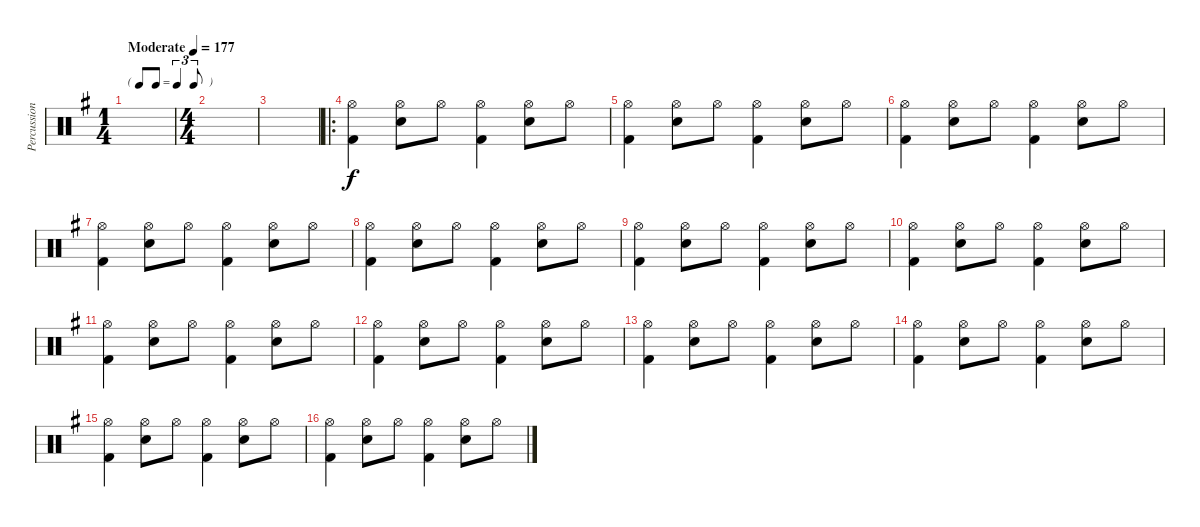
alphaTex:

\track ("Percussion" "Percussion") {instrument percussion}
\staff {score}
\articulation defaults
\ts (1 4)
\tf triplet8th
\tempo (177 "Moderate")
\clef neutral
\ks g
|
\ts (4 4)
|
|
\ro
("Hi-Hat (open)" "Kick (hit) 2").4 ("Hi-Hat (open)" "Snare (hit) 2").8 "Hi-Hat (open)".8 ("Hi-Hat (open)" "Kick (hit) 2").4 ("Hi-Hat (open)" "Snare (hit) 2").8 "Hi-Hat (open)".8 |
("Hi-Hat (open)" "Kick (hit) 2").4 ("Hi-Hat (open)" "Snare (hit) 2").8 "Hi-Hat (open)".8 ("Hi-Hat (open)" "Kick (hit) 2").4 ("Hi-Hat (open)" "Snare (hit) 2").8 "Hi-Hat (open)".8 |
("Hi-Hat (open)" "Kick (hit) 2").4 ("Hi-Hat (open)" "Snare (hit) 2").8 "Hi-Hat (open)".8 ("Hi-Hat (open)" "Kick (hit) 2").4 ("Hi-Hat (open)" "Snare (hit) 2").8 "Hi-Hat (open)".8 |
("Hi-Hat (open)" "Kick (hit) 2").4 ("Hi-Hat (open)" "Snare (hit) 2").8 "Hi-Hat (open)".8 ("Hi-Hat (open)" "Kick (hit) 2").4 ("Hi-Hat (open)" "Snare (hit) 2").8 "Hi-Hat (open)".8 |
("Hi-Hat (open)" "Kick (hit) 2").4 ("Hi-Hat (open)" "Snare (hit) 2").8 "Hi-Hat (open)".8 ("Hi-Hat (open)" "Kick (hit) 2").4 ("Hi-Hat (open)" "Snare (hit) 2").8 "Hi-Hat (open)".8 |
("Hi-Hat (open)" "Kick (hit) 2").4 ("Hi-Hat (open)" "Snare (hit) 2").8 "Hi-Hat (open)".8 ("Hi-Hat (open)" "Kick (hit) 2").4 ("Hi-Hat (open)" "Snare (hit) 2").8 "Hi-Hat (open)".8 |
("Hi-Hat (open)" "Kick (hit) 2").4 ("Hi-Hat (open)" "Snare (hit) 2").8 "Hi-Hat (open)".8 ("Hi-Hat (open)" "Kick (hit) 2").4 ("Hi-Hat (open)" "Snare (hit) 2").8 "Hi-Hat (open)".8 |
("Hi-Hat (open)" "Kick (hit) 2").4 ("Hi-Hat (open)" "Snare (hit) 2").8 "Hi-Hat (open)".8 ("Hi-Hat (open)" "Kick (hit) 2").4 ("Hi-Hat (open)" "Snare (hit) 2").8 "Hi-Hat (open)".8 |
("Hi-Hat (open)" "Kick (hit) 2").4 ("Hi-Hat (open)" "Snare (hit) 2").8 "Hi-Hat (open)".8 ("Hi-Hat (open)" "Kick (hit) 2").4 ("Hi-Hat (open)" "Snare (hit) 2").8 "Hi-Hat (open)".8 |
("Hi-Hat (open)" "Kick (hit) 2").4 ("Hi-Hat (open)" "Snare (hit) 2").8 "Hi-Hat (open)".8 ("Hi-Hat (open)" "Kick (hit) 2").4 ("Hi-Hat (open)" "Snare (hit) 2").8 "Hi-Hat (open)".8 |
("Hi-Hat (open)" "Kick (hit) 2").4 ("Hi-Hat (open)" "Snare (hit) 2").8 "Hi-Hat (open)".8 ("Hi-Hat (open)" "Kick (hit) 2").4 ("Hi-Hat (open)" "Snare (hit) 2").8 "Hi-Hat (open)".8 |
("Hi-Hat (open)" "Kick (hit) 2").4 ("Hi-Hat (open)" "Snare (hit) 2").8 "Hi-Hat (open)".8 ("Hi-Hat (open)" "Kick (hit) 2").4 ("Hi-Hat (open)" "Snare (hit) 2").8 "Hi-Hat (open)".8 |
("Hi-Hat (open)" "Kick (hit) 2").4 ("Hi-Hat (open)" "Snare (hit) 2").8 "Hi-Hat (open)".8 ("Hi-Hat (open)" "Kick (hit) 2").4 ("Hi-Hat (open)" "Snare (hit) 2").8 "Hi-Hat (open)".8
